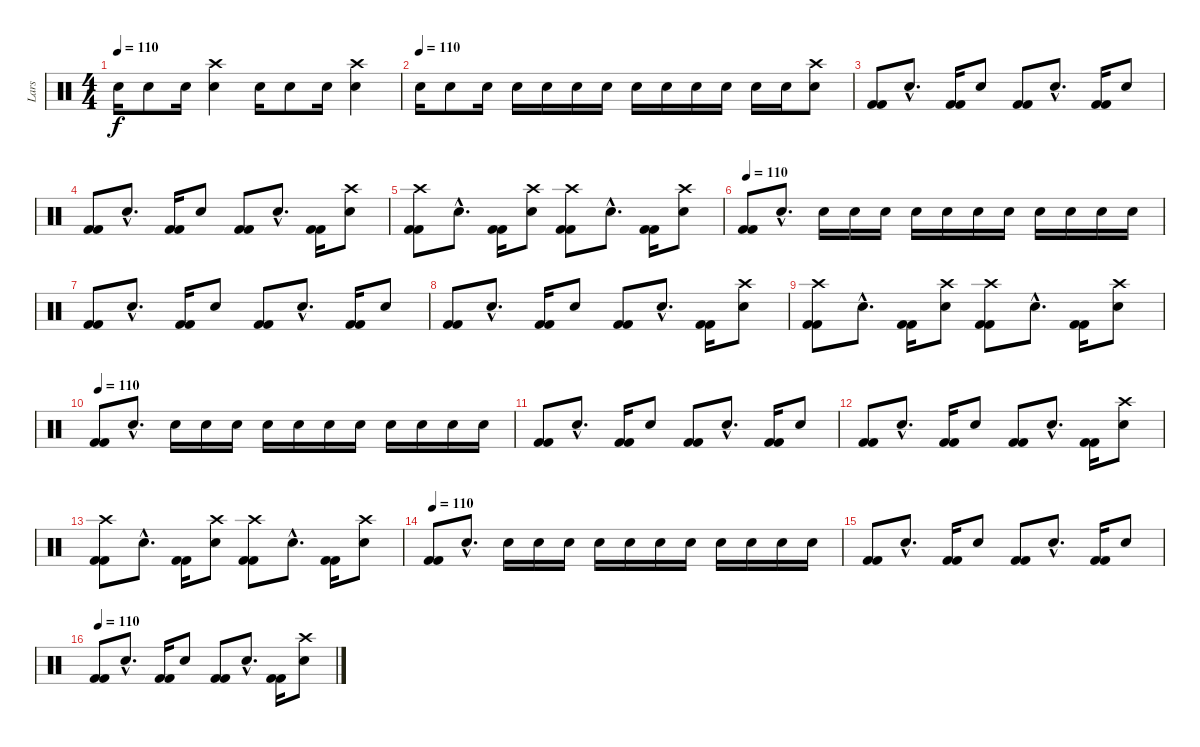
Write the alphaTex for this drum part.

\track ("Lars" "Lars") {instrument percussion}
\staff {score}
\articulation defaults
\ts (4 4)
\tempo 110
\clef neutral
\ks c "Snare (hit) 2".16{dy f} "Snare (hit) 2".8 "Snare (hit) 2".16
("Crash high (hit)" "Snare (hit) 2").4 "Snare (hit) 2".16 "Snare (hit) 2".8 "Snare (hit) 2".16 ("Crash high (hit)" "Snare (hit) 2").4 |
\tempo (110)
"Snare (hit) 2".16 "Snare (hit) 2".8 "Snare (hit) 2".16 "Snare (hit) 2".16 "Snare (hit) 2".16 "Snare (hit) 2".16 "Snare (hit) 2".16 "Snare (hit) 2".16 "Snare (hit) 2".16 "Snare (hit) 2".16 "Snare (hit) 2".16 "Snare (hit) 2".16 "Snare (hit) 2".16 ("Crash high (hit)" "Snare (hit) 2").8 |
("Kick (hit) 2" "Kick (hit) 2").8 "Snare (hit) 2"{hac}.8{d} ("Kick (hit) 2" "Kick (hit) 2").16 "Snare (hit) 2".8 ("Kick (hit) 2" "Kick (hit) 2").8 "Snare (hit) 2"{hac}.8{d} ("Kick (hit) 2" "Kick (hit) 2").16 "Snare (hit) 2".8 |
("Kick (hit) 2" "Kick (hit) 2").8 "Snare (hit) 2"{hac}.8{d} ("Kick (hit) 2" "Kick (hit) 2").16 "Snare (hit) 2".8 ("Kick (hit) 2" "Kick (hit) 2").8 "Snare (hit) 2"{hac}.8{d} ("Kick (hit) 2" "Kick (hit) 2").16 ("Crash high (hit)" "Snare (hit) 2").8 |
("Crash high (hit)" "Kick (hit) 2" "Kick (hit) 2").8 "Snare (hit) 2"{hac}.8{d} ("Kick (hit) 2" "Kick (hit) 2").16 ("Crash high (hit)" "Snare (hit) 2").8 ("Crash high (hit)" "Kick (hit) 2" "Kick (hit) 2").8 "Snare (hit) 2"{hac}.8{d} ("Kick (hit) 2" "Kick (hit) 2").16 ("Snare (hit) 2" "Crash high (hit)").8 |
\tempo 110
("Kick (hit) 2" "Kick (hit) 2").8 "Snare (hit) 2"{hac}.8{d} "Snare (hit) 2".16 "Snare (hit) 2".16 "Snare (hit) 2".16 "Snare (hit) 2".16 "Snare (hit) 2".16 "Snare (hit) 2".16 "Snare (hit) 2".16 "Snare (hit) 2".16 "Snare (hit) 2".16 "Snare (hit) 2".16 "Snare (hit) 2".16 |
("Kick (hit) 2" "Kick (hit) 2").8 "Snare (hit) 2"{hac}.8{d} ("Kick (hit) 2" "Kick (hit) 2").16 "Snare (hit) 2".8 ("Kick (hit) 2" "Kick (hit) 2").8 "Snare (hit) 2"{hac}.8{d} ("Kick (hit) 2" "Kick (hit) 2").16 "Snare (hit) 2".8 |
("Kick (hit) 2" "Kick (hit) 2").8 "Snare (hit) 2"{hac}.8{d} ("Kick (hit) 2" "Kick (hit) 2").16 "Snare (hit) 2".8 ("Kick (hit) 2" "Kick (hit) 2").8 "Snare (hit) 2"{hac}.8{d} ("Kick (hit) 2" "Kick (hit) 2").16 ("Crash high (hit)" "Snare (hit) 2").8 |
("Crash high (hit)" "Kick (hit) 2" "Kick (hit) 2").8 "Snare (hit) 2"{hac}.8{d} ("Kick (hit) 2" "Kick (hit) 2").16 ("Crash high (hit)" "Snare (hit) 2").8 ("Crash high (hit)" "Kick (hit) 2" "Kick (hit) 2").8 "Snare (hit) 2"{hac}.8{d} ("Kick (hit) 2" "Kick (hit) 2").16 ("Snare (hit) 2" "Crash high (hit)").8 |
\tempo 110
("Kick (hit) 2" "Kick (hit) 2").8 "Snare (hit) 2"{hac}.8{d} "Snare (hit) 2".16 "Snare (hit) 2".16 "Snare (hit) 2".16 "Snare (hit) 2".16 "Snare (hit) 2".16 "Snare (hit) 2".16 "Snare (hit) 2".16 "Snare (hit) 2".16 "Snare (hit) 2".16 "Snare (hit) 2".16 "Snare (hit) 2".16 |
("Kick (hit) 2" "Kick (hit) 2").8 "Snare (hit) 2"{hac}.8{d} ("Kick (hit) 2" "Kick (hit) 2").16 "Snare (hit) 2".8 ("Kick (hit) 2" "Kick (hit) 2").8 "Snare (hit) 2"{hac}.8{d} ("Kick (hit) 2" "Kick (hit) 2").16 "Snare (hit) 2".8 |
("Kick (hit) 2" "Kick (hit) 2").8 "Snare (hit) 2"{hac}.8{d} ("Kick (hit) 2" "Kick (hit) 2").16 "Snare (hit) 2".8 ("Kick (hit) 2" "Kick (hit) 2").8 "Snare (hit) 2"{hac}.8{d} ("Kick (hit) 2" "Kick (hit) 2").16 ("Crash high (hit)" "Snare (hit) 2").8 |
("Crash high (hit)" "Kick (hit) 2" "Kick (hit) 2").8 "Snare (hit) 2"{hac}.8{d} ("Kick (hit) 2" "Kick (hit) 2").16 ("Crash high (hit)" "Snare (hit) 2").8 ("Crash high (hit)" "Kick (hit) 2" "Kick (hit) 2").8 "Snare (hit) 2"{hac}.8{d} ("Kick (hit) 2" "Kick (hit) 2").16 ("Snare (hit) 2" "Crash high (hit)").8 |
\tempo 110
("Kick (hit) 2" "Kick (hit) 2").8 "Snare (hit) 2"{hac}.8{d} "Snare (hit) 2".16 "Snare (hit) 2".16 "Snare (hit) 2".16 "Snare (hit) 2".16 "Snare (hit) 2".16 "Snare (hit) 2".16 "Snare (hit) 2".16 "Snare (hit) 2".16 "Snare (hit) 2".16 "Snare (hit) 2".16 "Snare (hit) 2".16 |
("Kick (hit) 2" "Kick (hit) 2").8 "Snare (hit) 2"{hac}.8{d} ("Kick (hit) 2" "Kick (hit) 2").16 "Snare (hit) 2".8 ("Kick (hit) 2" "Kick (hit) 2").8 "Snare (hit) 2"{hac}.8{d} ("Kick (hit) 2" "Kick (hit) 2").16 "Snare (hit) 2".8 |
\tempo 110
("Kick (hit) 2" "Kick (hit) 2").8 "Snare (hit) 2"{hac}.8{d} ("Kick (hit) 2" "Kick (hit) 2").16 "Snare (hit) 2".8 ("Kick (hit) 2" "Kick (hit) 2").8 "Snare (hit) 2"{hac}.8{d} ("Kick (hit) 2" "Kick (hit) 2").16 ("Crash high (hit)" "Snare (hit) 2").8
